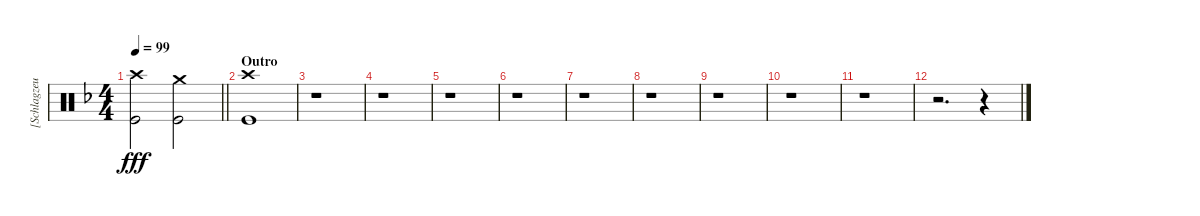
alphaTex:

\track ("[Schlagzeug]" "[Schlagzeu") {instrument percussion}
\staff {score}
\articulation defaults
\ts (4 4)
\tempo 99
\clef neutral
\barLineRight lightlight
\ks dminor
("Crash high (hit)" "Kick (hit)").2{dy fff} ("Crash medium (hit)" "Kick (hit)").2 |
\section ("" "Outro")
("Crash high (hit)" "Kick (hit)").1 |
r.1 |
r.1 |
r.1 |
r.1 |
r.1 |
r.1 |
r.1 |
r.1 |
r.1 |
r.2{d} r.4{volume 0}
